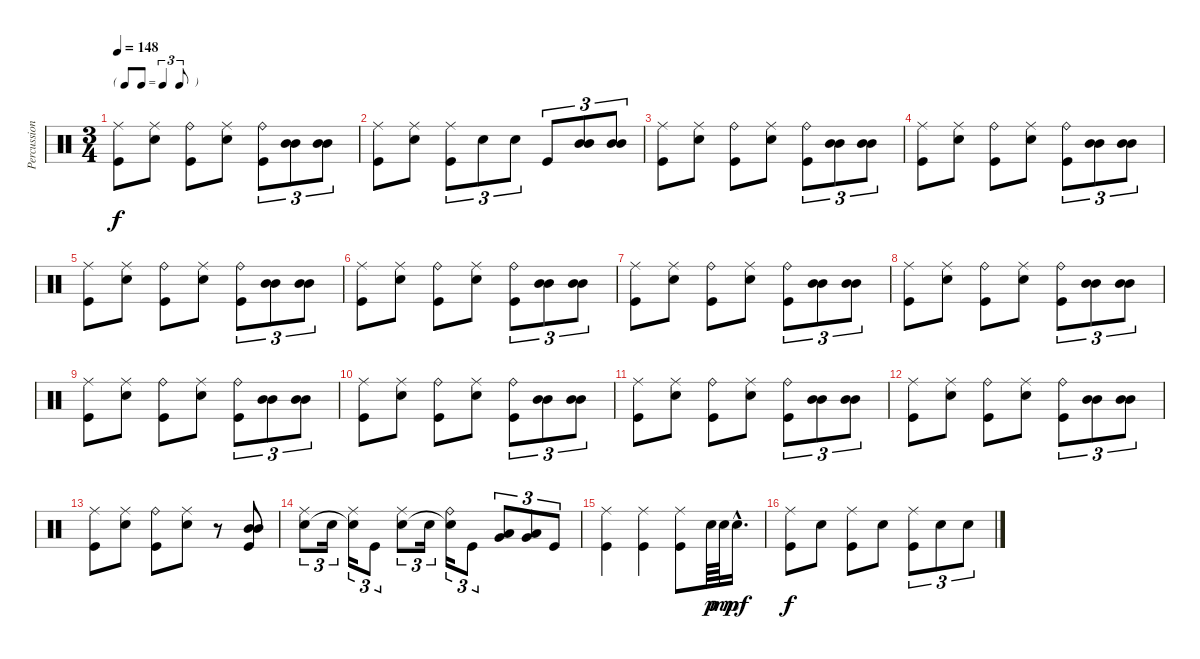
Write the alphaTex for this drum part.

\track ("Percussions" "Percussion") {instrument percussion}
\staff {score}
\articulation defaults
\ts (3 4)
\tf triplet8th
\tempo 148
\clef neutral
\ks c
("Ride (middle)" "Kick (hit)").8{dy f} ("Ride (middle)" "Electric Snare (hit)").8 ("Ride (bell)" "Kick (hit)").8 ("Ride (middle)" "Electric Snare (hit)").8 ("Ride (bell)" "Kick (hit)").8{tu (3 2)} ("Mid Tom (hit)" "Mid Tom (hit)").8{tu (3 2)} ("Mid Tom (hit)" "Mid Tom (hit)").8{tu (3 2)} |
("Ride (middle)" "Kick (hit)").8 ("Ride (middle)" "Electric Snare (hit)").8 ("Ride (middle)" "Kick (hit)").8{tu (3 2)} "Electric Snare (hit)".8{tu (3 2)} "Electric Snare (hit)".8{tu (3 2)} "Kick (hit)".8{tu (3 2)} ("Mid Tom (hit)" "Mid Tom (hit)").8{tu (3 2)} ("Mid Tom (hit)" "Mid Tom (hit)").8{tu (3 2)} |
("Ride (middle)" "Kick (hit)").8 ("Ride (middle)" "Electric Snare (hit)").8 ("Ride (bell)" "Kick (hit)").8 ("Ride (middle)" "Electric Snare (hit)").8 ("Ride (bell)" "Kick (hit)").8{tu (3 2)} ("Mid Tom (hit)" "Mid Tom (hit)").8{tu (3 2)} ("Mid Tom (hit)" "Mid Tom (hit)").8{tu (3 2)} |
("Ride (middle)" "Kick (hit)").8 ("Ride (middle)" "Electric Snare (hit)").8 ("Ride (bell)" "Kick (hit)").8 ("Ride (middle)" "Electric Snare (hit)").8 ("Ride (bell)" "Kick (hit)").8{tu (3 2)} ("Mid Tom (hit)" "Mid Tom (hit)").8{tu (3 2)} ("Mid Tom (hit)" "Mid Tom (hit)").8{tu (3 2)} |
("Ride (middle)" "Kick (hit)").8 ("Ride (middle)" "Electric Snare (hit)").8 ("Ride (bell)" "Kick (hit)").8 ("Ride (middle)" "Electric Snare (hit)").8 ("Ride (bell)" "Kick (hit)").8{tu (3 2)} ("Mid Tom (hit)" "Mid Tom (hit)").8{tu (3 2)} ("Mid Tom (hit)" "Mid Tom (hit)").8{tu (3 2)} |
("Ride (middle)" "Kick (hit)").8 ("Ride (middle)" "Electric Snare (hit)").8 ("Ride (bell)" "Kick (hit)").8 ("Ride (middle)" "Electric Snare (hit)").8 ("Ride (bell)" "Kick (hit)").8{tu (3 2)} ("Mid Tom (hit)" "Mid Tom (hit)").8{tu (3 2)} ("Mid Tom (hit)" "Mid Tom (hit)").8{tu (3 2)} |
("Ride (middle)" "Kick (hit)").8 ("Ride (middle)" "Electric Snare (hit)").8 ("Ride (bell)" "Kick (hit)").8 ("Ride (middle)" "Electric Snare (hit)").8 ("Ride (bell)" "Kick (hit)").8{tu (3 2)} ("Mid Tom (hit)" "Mid Tom (hit)").8{tu (3 2)} ("Mid Tom (hit)" "Mid Tom (hit)").8{tu (3 2)} |
("Ride (middle)" "Kick (hit)").8 ("Ride (middle)" "Electric Snare (hit)").8 ("Ride (bell)" "Kick (hit)").8 ("Ride (middle)" "Electric Snare (hit)").8 ("Ride (bell)" "Kick (hit)").8{tu (3 2)} ("Mid Tom (hit)" "Mid Tom (hit)").8{tu (3 2)} ("Mid Tom (hit)" "Mid Tom (hit)").8{tu (3 2)} |
("Ride (middle)" "Kick (hit)").8 ("Ride (middle)" "Electric Snare (hit)").8 ("Ride (bell)" "Kick (hit)").8 ("Ride (middle)" "Electric Snare (hit)").8 ("Ride (bell)" "Kick (hit)").8{tu (3 2)} ("Mid Tom (hit)" "Mid Tom (hit)").8{tu (3 2)} ("Mid Tom (hit)" "Mid Tom (hit)").8{tu (3 2)} |
("Ride (middle)" "Kick (hit)").8 ("Ride (middle)" "Electric Snare (hit)").8 ("Ride (bell)" "Kick (hit)").8 ("Ride (middle)" "Electric Snare (hit)").8 ("Ride (bell)" "Kick (hit)").8{tu (3 2)} ("Mid Tom (hit)" "Mid Tom (hit)").8{tu (3 2)} ("Mid Tom (hit)" "Mid Tom (hit)").8{tu (3 2)} |
("Ride (middle)" "Kick (hit)").8 ("Ride (middle)" "Electric Snare (hit)").8 ("Ride (bell)" "Kick (hit)").8 ("Ride (middle)" "Electric Snare (hit)").8 ("Ride (bell)" "Kick (hit)").8{tu (3 2)} ("Mid Tom (hit)" "Mid Tom (hit)").8{tu (3 2)} ("Mid Tom (hit)" "Mid Tom (hit)").8{tu (3 2)} |
("Ride (middle)" "Kick (hit)").8 ("Ride (middle)" "Electric Snare (hit)").8 ("Ride (bell)" "Kick (hit)").8 ("Ride (middle)" "Electric Snare (hit)").8 ("Ride (bell)" "Kick (hit)").8{tu (3 2)} ("Mid Tom (hit)" "Mid Tom (hit)").8{tu (3 2)} ("Mid Tom (hit)" "Mid Tom (hit)").8{tu (3 2)} |
("Ride (middle)" "Kick (hit)").8 ("Ride (middle)" "Electric Snare (hit)").8 ("Ride (bell)" "Kick (hit)").8 ("Ride (middle)" "Electric Snare (hit)").8 r.8 ("Mid Tom (hit)" "Mid Tom (hit)" "Kick (hit)").8 |
("Ride (middle)" "Electric Snare (hit)").8{tu (3 2)} "Electric Snare (hit)".16{tu (3 2)} ("Ride (middle)" "Snare (hit)"{t}).16{tu (3 2)} "Kick (hit)".8{tu (3 2)} ("Ride (middle)" "Electric Snare (hit)").8{tu (3 2)} "Electric Snare (hit)".16{tu (3 2)} ("Ride (bell)" "Snare (hit)"{t}).16{tu (3 2)} "Kick (hit)".8{tu (3 2)} ("Low Tom (hit)" "Very Low Tom (hit)").8{tu (3 2)} ("Low Tom (hit)" "Very Low Tom (hit)").8{tu (3 2)} "Kick (hit)".8{tu (3 2)} |
("Ride (middle)" "Kick (hit)").4 ("Ride (middle)" "Kick (hit)").4 ("Ride (middle)" "Kick (hit)").8 "Electric Snare (hit)".64{dy p} "Electric Snare (hit)".64{dy mp} "Electric Snare (hit)"{hac}.16{d dy mf} |
("Ride (middle)" "Kick (hit)").8{dy f} "Electric Snare (hit)".8 ("Ride (middle)" "Kick (hit)").8 "Electric Snare (hit)".8 ("Ride (middle)" "Kick (hit)").8{tu (3 2)} "Electric Snare (hit)".8{tu (3 2)} "Electric Snare (hit)".8{tu (3 2)}
